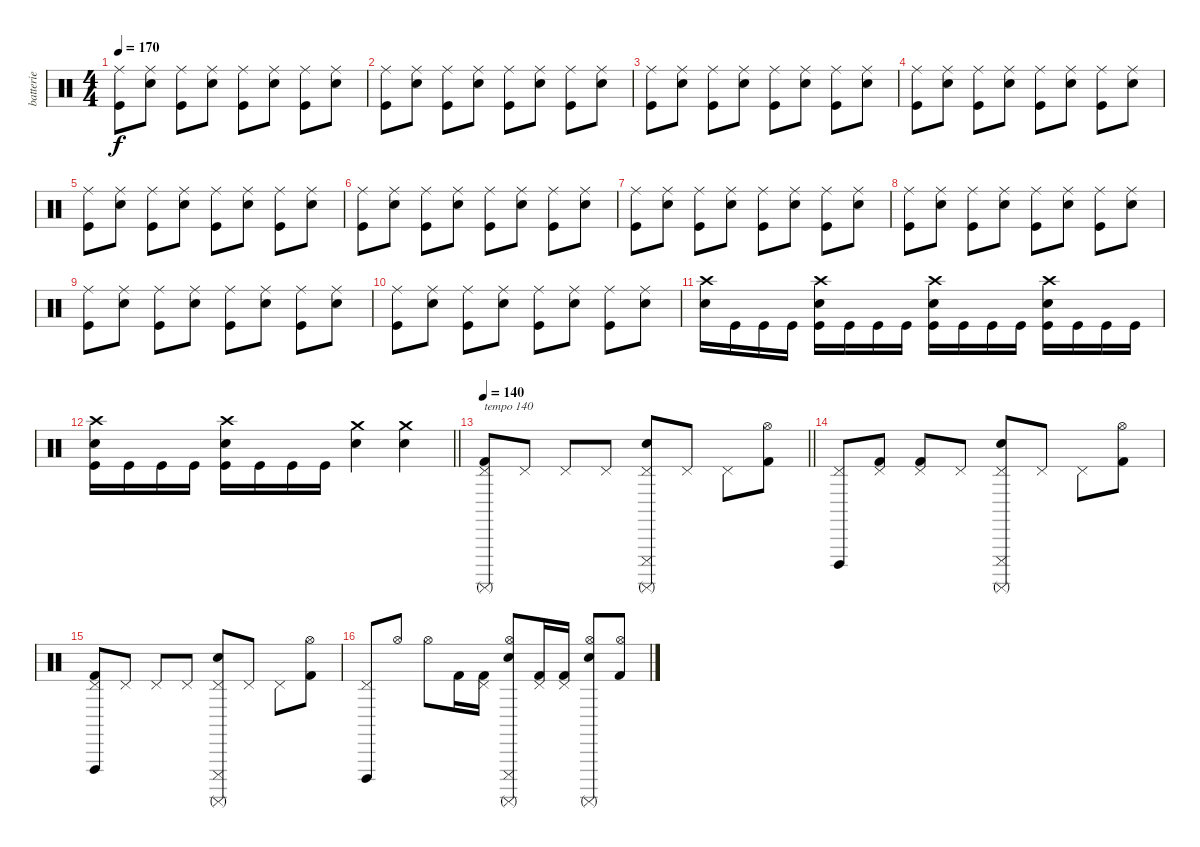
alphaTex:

\track ("batterie" "batterie") {instrument percussion}
\staff {score}
\articulation defaults
\ts (4 4)
\tempo 170
\clef neutral
\ks c
("Ride (middle)" "Kick (hit)").8{dy f} ("Ride (middle)" "Snare (hit) 2").8 ("Ride (middle)" "Kick (hit)").8 ("Ride (middle)" "Snare (hit) 2").8 ("Ride (middle)" "Kick (hit)").8 ("Ride (middle)" "Snare (hit) 2").8 ("Ride (middle)" "Kick (hit)").8 ("Ride (middle)" "Snare (hit) 2").8 |
("Ride (middle)" "Kick (hit)").8 ("Ride (middle)" "Snare (hit) 2").8 ("Ride (middle)" "Kick (hit)").8 ("Ride (middle)" "Snare (hit) 2").8 ("Ride (middle)" "Kick (hit)").8 ("Ride (middle)" "Snare (hit) 2").8 ("Ride (middle)" "Kick (hit)").8 ("Ride (middle)" "Snare (hit) 2").8 |
("Ride (middle)" "Kick (hit)").8 ("Ride (middle)" "Snare (hit) 2").8 ("Ride (middle)" "Kick (hit)").8 ("Ride (middle)" "Snare (hit) 2").8 ("Ride (middle)" "Kick (hit)").8 ("Ride (middle)" "Snare (hit) 2").8 ("Ride (middle)" "Kick (hit)").8 ("Ride (middle)" "Snare (hit) 2").8 |
("Ride (middle)" "Kick (hit)").8 ("Ride (middle)" "Snare (hit) 2").8 ("Ride (middle)" "Kick (hit)").8 ("Ride (middle)" "Snare (hit) 2").8 ("Ride (middle)" "Kick (hit)").8 ("Ride (middle)" "Snare (hit) 2").8 ("Ride (middle)" "Kick (hit)").8 ("Ride (middle)" "Snare (hit) 2").8 |
("Ride (middle)" "Kick (hit)").8 ("Ride (middle)" "Snare (hit) 2").8 ("Ride (middle)" "Kick (hit)").8 ("Ride (middle)" "Snare (hit) 2").8 ("Ride (middle)" "Kick (hit)").8 ("Ride (middle)" "Snare (hit) 2").8 ("Ride (middle)" "Kick (hit)").8 ("Ride (middle)" "Snare (hit) 2").8 |
("Ride (middle)" "Kick (hit)").8 ("Ride (middle)" "Snare (hit) 2").8 ("Ride (middle)" "Kick (hit)").8 ("Ride (middle)" "Snare (hit) 2").8 ("Ride (middle)" "Kick (hit)").8 ("Ride (middle)" "Snare (hit) 2").8 ("Ride (middle)" "Kick (hit)").8 ("Ride (middle)" "Snare (hit) 2").8 |
("Ride (middle)" "Kick (hit)").8 ("Ride (middle)" "Snare (hit) 2").8 ("Ride (middle)" "Kick (hit)").8 ("Ride (middle)" "Snare (hit) 2").8 ("Ride (middle)" "Kick (hit)").8 ("Ride (middle)" "Snare (hit) 2").8 ("Ride (middle)" "Kick (hit)").8 ("Ride (middle)" "Snare (hit) 2").8 |
("Ride (middle)" "Kick (hit)").8 ("Ride (middle)" "Snare (hit) 2").8 ("Ride (middle)" "Kick (hit)").8 ("Ride (middle)" "Snare (hit) 2").8 ("Ride (middle)" "Kick (hit)").8 ("Ride (middle)" "Snare (hit) 2").8 ("Ride (middle)" "Kick (hit)").8 ("Ride (middle)" "Snare (hit) 2").8 |
("Ride (middle)" "Kick (hit)").8 ("Ride (middle)" "Snare (hit) 2").8 ("Ride (middle)" "Kick (hit)").8 ("Ride (middle)" "Snare (hit) 2").8 ("Ride (middle)" "Kick (hit)").8 ("Ride (middle)" "Snare (hit) 2").8 ("Ride (middle)" "Kick (hit)").8 ("Ride (middle)" "Snare (hit) 2").8 |
("Ride (middle)" "Kick (hit)").8 ("Ride (middle)" "Snare (hit) 2").8 ("Ride (middle)" "Kick (hit)").8 ("Ride (middle)" "Snare (hit) 2").8 ("Ride (middle)" "Kick (hit)").8 ("Ride (middle)" "Snare (hit) 2").8 ("Ride (middle)" "Kick (hit)").8 ("Ride (middle)" "Snare (hit) 2").8 |
("Crash high (hit)" "Snare (hit) 2").16 "Kick (hit)".16 "Kick (hit)".16 "Kick (hit)".16 ("Crash high (hit)" "Snare (hit) 2" "Kick (hit)").16 "Kick (hit)".16 "Kick (hit)".16 "Kick (hit)".16 ("Crash high (hit)" "Snare (hit) 2" "Kick (hit)").16 "Kick (hit)".16 "Kick (hit)".16 "Kick (hit)".16 ("Crash high (hit)" "Snare (hit) 2" "Kick (hit)").16 "Kick (hit)".16 "Kick (hit)".16 "Kick (hit)".16 |
\barLineRight lightlight
("Crash high (hit)" "Snare (hit) 2" "Kick (hit)").16 "Kick (hit)".16 "Kick (hit)".16 "Kick (hit)".16 ("Crash high (hit)" "Snare (hit) 2" "Kick (hit)").16 "Kick (hit)".16 "Kick (hit)".16 "Kick (hit)".16 ("Crash medium (hit)" "Snare (hit) 2").4 ("Crash medium (hit)" "Snare (hit) 2").4 |
\tempo 140
\barLineRight lightlight
("Surdo (mute)" "Pedal Hi-Hat (hit)" "Kick (hit) 2").8{txt "tempo 140"} "Pedal Hi-Hat (hit)".8 "Pedal Hi-Hat (hit)".8 "Pedal Hi-Hat (hit)".8 ("Surdo (mute)" "Cuica (mute)" "Pedal Hi-Hat (hit)" "Electric Snare (hit)").8 "Pedal Hi-Hat (hit)".8 "Pedal Hi-Hat (hit)".8 ("Hi-Hat (open)" "Kick (hit) 2").8 |
("Cuica (open)" "Pedal Hi-Hat (hit)").8 ("Pedal Hi-Hat (hit)" "Kick (hit) 2").8 ("Pedal Hi-Hat (hit)" "Kick (hit) 2").8 "Pedal Hi-Hat (hit)".8 ("Surdo (mute)" "Cuica (mute)" "Pedal Hi-Hat (hit)" "Electric Snare (hit)").8 "Pedal Hi-Hat (hit)".8 "Pedal Hi-Hat (hit)".8 ("Hi-Hat (open)" "Kick (hit) 2").8 |
("Vibraslap (hit)" "Pedal Hi-Hat (hit)" "Kick (hit) 2").8 "Pedal Hi-Hat (hit)".8 "Pedal Hi-Hat (hit)".8 "Pedal Hi-Hat (hit)".8 ("Surdo (mute)" "Cuica (mute)" "Pedal Hi-Hat (hit)" "Electric Snare (hit)").8 "Pedal Hi-Hat (hit)".8 "Pedal Hi-Hat (hit)".8 ("Hi-Hat (open)" "Kick (hit) 2").8 |
("Cuica (open)" "Pedal Hi-Hat (hit)").8 "Hi-Hat (open)".8 "Hi-Hat (open)".8 "Kick (hit) 2".16 ("Pedal Hi-Hat (hit)" "Kick (hit) 2").16 ("Surdo (mute)" "Cuica (mute)" "Hi-Hat (open)" "Electric Snare (hit)").8 ("Pedal Hi-Hat (hit)" "Kick (hit) 2").16 ("Pedal Hi-Hat (hit)" "Kick (hit) 2").16 ("Surdo (mute)" "Hi-Hat (open)" "Electric Snare (hit)").8 ("Hi-Hat (open)" "Kick (hit) 2").8
